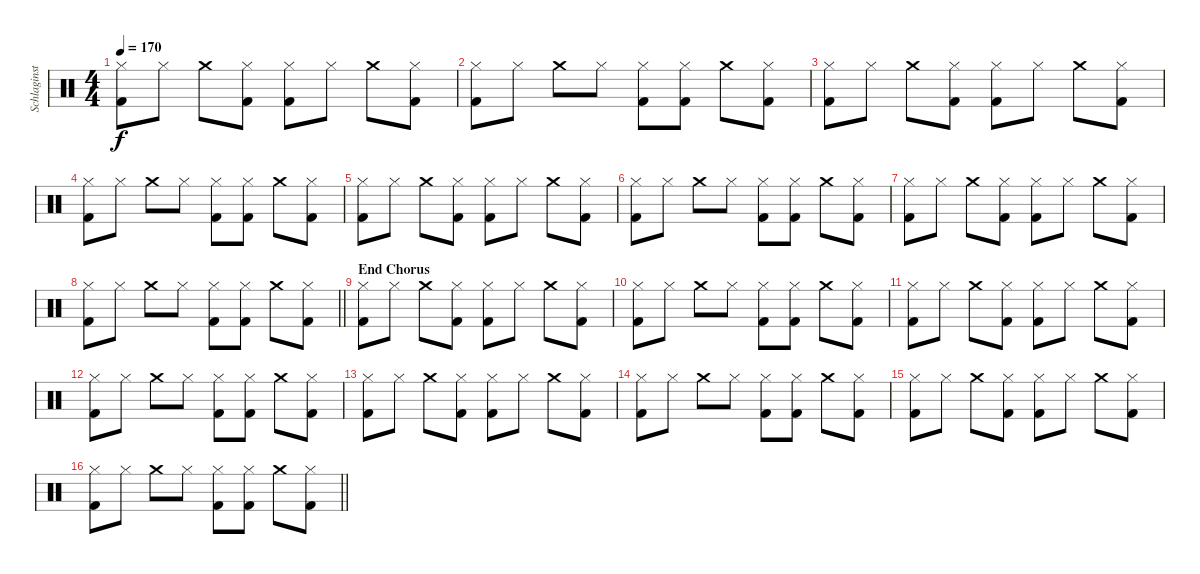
\track ("Schlaginstrumente - Auswahl" "Schlaginst") {instrument percussion}
\staff {score}
\articulation defaults
\ts (4 4)
\tempo 170
\clef neutral
\ks c
("Hi-Hat (closed)" "Kick (hit) 2").8{dy f} "Hi-Hat (closed)".8 "Crash medium (hit)".8 ("Hi-Hat (closed)" "Kick (hit) 2").8 ("Hi-Hat (closed)" "Kick (hit) 2").8 "Hi-Hat (closed)".8 "Crash medium (hit)".8 ("Hi-Hat (closed)" "Kick (hit) 2").8 |
("Hi-Hat (closed)" "Kick (hit) 2").8 "Hi-Hat (closed)".8 "Crash medium (hit)".8 "Hi-Hat (closed)".8 ("Hi-Hat (closed)" "Kick (hit) 2").8 ("Hi-Hat (closed)" "Kick (hit) 2").8 "Crash medium (hit)".8 ("Hi-Hat (closed)" "Kick (hit) 2").8 |
("Hi-Hat (closed)" "Kick (hit) 2").8 "Hi-Hat (closed)".8 "Crash medium (hit)".8 ("Hi-Hat (closed)" "Kick (hit) 2").8 ("Hi-Hat (closed)" "Kick (hit) 2").8 "Hi-Hat (closed)".8 "Crash medium (hit)".8 ("Hi-Hat (closed)" "Kick (hit) 2").8 |
("Hi-Hat (closed)" "Kick (hit) 2").8 "Hi-Hat (closed)".8 "Crash medium (hit)".8 "Hi-Hat (closed)".8 ("Hi-Hat (closed)" "Kick (hit) 2").8 ("Hi-Hat (closed)" "Kick (hit) 2").8 "Crash medium (hit)".8 ("Hi-Hat (closed)" "Kick (hit) 2").8 |
("Hi-Hat (closed)" "Kick (hit) 2").8 "Hi-Hat (closed)".8 "Crash medium (hit)".8 ("Hi-Hat (closed)" "Kick (hit) 2").8 ("Hi-Hat (closed)" "Kick (hit) 2").8 "Hi-Hat (closed)".8 "Crash medium (hit)".8 ("Hi-Hat (closed)" "Kick (hit) 2").8 |
("Hi-Hat (closed)" "Kick (hit) 2").8 "Hi-Hat (closed)".8 "Crash medium (hit)".8 "Hi-Hat (closed)".8 ("Hi-Hat (closed)" "Kick (hit) 2").8 ("Hi-Hat (closed)" "Kick (hit) 2").8 "Crash medium (hit)".8 ("Hi-Hat (closed)" "Kick (hit) 2").8 |
("Hi-Hat (closed)" "Kick (hit) 2").8 "Hi-Hat (closed)".8 "Crash medium (hit)".8 ("Hi-Hat (closed)" "Kick (hit) 2").8 ("Hi-Hat (closed)" "Kick (hit) 2").8 "Hi-Hat (closed)".8 "Crash medium (hit)".8 ("Hi-Hat (closed)" "Kick (hit) 2").8 |
\barLineRight lightlight
("Hi-Hat (closed)" "Kick (hit) 2").8 "Hi-Hat (closed)".8 "Crash medium (hit)".8 "Hi-Hat (closed)".8 ("Hi-Hat (closed)" "Kick (hit) 2").8 ("Hi-Hat (closed)" "Kick (hit) 2").8 "Crash medium (hit)".8 ("Hi-Hat (closed)" "Kick (hit) 2").8 |
\section ("" "End Chorus")
("Hi-Hat (closed)" "Kick (hit) 2").8 "Hi-Hat (closed)".8 "Crash medium (hit)".8 ("Hi-Hat (closed)" "Kick (hit) 2").8 ("Hi-Hat (closed)" "Kick (hit) 2").8 "Hi-Hat (closed)".8 "Crash medium (hit)".8 ("Hi-Hat (closed)" "Kick (hit) 2").8 |
("Hi-Hat (closed)" "Kick (hit) 2").8 "Hi-Hat (closed)".8 "Crash medium (hit)".8 "Hi-Hat (closed)".8 ("Hi-Hat (closed)" "Kick (hit) 2").8 ("Hi-Hat (closed)" "Kick (hit) 2").8 "Crash medium (hit)".8 ("Hi-Hat (closed)" "Kick (hit) 2").8 |
("Hi-Hat (closed)" "Kick (hit) 2").8 "Hi-Hat (closed)".8 "Crash medium (hit)".8 ("Hi-Hat (closed)" "Kick (hit) 2").8 ("Hi-Hat (closed)" "Kick (hit) 2").8 "Hi-Hat (closed)".8 "Crash medium (hit)".8 ("Hi-Hat (closed)" "Kick (hit) 2").8 |
("Hi-Hat (closed)" "Kick (hit) 2").8 "Hi-Hat (closed)".8 "Crash medium (hit)".8 "Hi-Hat (closed)".8 ("Hi-Hat (closed)" "Kick (hit) 2").8 ("Hi-Hat (closed)" "Kick (hit) 2").8 "Crash medium (hit)".8 ("Hi-Hat (closed)" "Kick (hit) 2").8 |
("Hi-Hat (closed)" "Kick (hit) 2").8 "Hi-Hat (closed)".8 "Crash medium (hit)".8 ("Hi-Hat (closed)" "Kick (hit) 2").8 ("Hi-Hat (closed)" "Kick (hit) 2").8 "Hi-Hat (closed)".8 "Crash medium (hit)".8 ("Hi-Hat (closed)" "Kick (hit) 2").8 |
("Hi-Hat (closed)" "Kick (hit) 2").8 "Hi-Hat (closed)".8 "Crash medium (hit)".8 "Hi-Hat (closed)".8 ("Hi-Hat (closed)" "Kick (hit) 2").8 ("Hi-Hat (closed)" "Kick (hit) 2").8 "Crash medium (hit)".8 ("Hi-Hat (closed)" "Kick (hit) 2").8 |
("Hi-Hat (closed)" "Kick (hit) 2").8 "Hi-Hat (closed)".8 "Crash medium (hit)".8 ("Hi-Hat (closed)" "Kick (hit) 2").8 ("Hi-Hat (closed)" "Kick (hit) 2").8 "Hi-Hat (closed)".8 "Crash medium (hit)".8 ("Hi-Hat (closed)" "Kick (hit) 2").8 |
\barLineRight lightlight
("Hi-Hat (closed)" "Kick (hit) 2").8 "Hi-Hat (closed)".8 "Crash medium (hit)".8 "Hi-Hat (closed)".8 ("Hi-Hat (closed)" "Kick (hit) 2").8 ("Hi-Hat (closed)" "Kick (hit) 2").8 "Crash medium (hit)".8 ("Hi-Hat (closed)" "Kick (hit) 2").8
